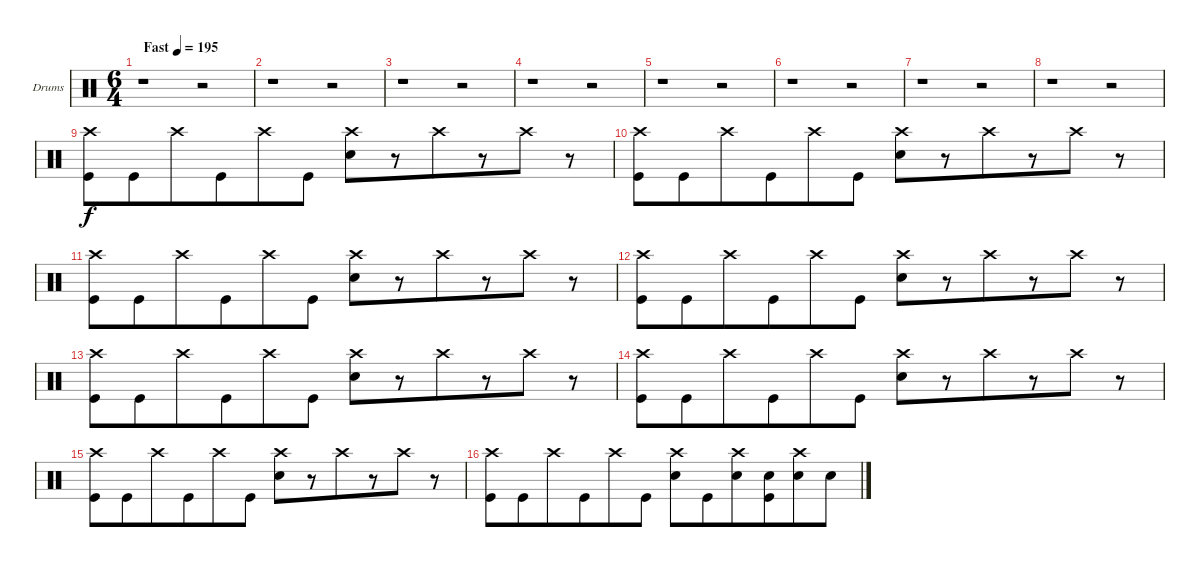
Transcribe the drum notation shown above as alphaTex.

\bracketExtendMode groupsimilarinstruments
\firstSystemTrackNameOrientation horizontal
\otherSystemsTrackNameOrientation horizontal
\track ("Drumkit" "Drums") {instrument percussion}
\staff {score}
\articulation defaults
\ts (6 4)
\beaming (8 6 6)
\tempo (195 "Fast")
\clef neutral
\ks c
r.1{dy f} r.2 |
r.1 r.2 |
r.1 r.2 |
r.1 r.2 |
r.1 r.2 |
r.1 r.2 |
r.1 r.2 |
r.1 r.2 |
("Crash high (hit)" "Kick (hit)").8 "Kick (hit)".8 "Crash high (hit)".8 "Kick (hit)".8 "Crash high (hit)".8 "Kick (hit)".8 ("Crash high (hit)" "Snare (hit) 2").8 r.8 "Crash high (hit)".8 r.8 "Crash high (hit)".8 r.8 |
("Crash high (hit)" "Kick (hit)").8 "Kick (hit)".8 "Crash high (hit)".8 "Kick (hit)".8 "Crash high (hit)".8 "Kick (hit)".8 ("Crash high (hit)" "Snare (hit) 2").8 r.8 "Crash high (hit)".8 r.8 "Crash high (hit)".8 r.8 |
("Crash high (hit)" "Kick (hit)").8 "Kick (hit)".8 "Crash high (hit)".8 "Kick (hit)".8 "Crash high (hit)".8 "Kick (hit)".8 ("Crash high (hit)" "Snare (hit) 2").8 r.8 "Crash high (hit)".8 r.8 "Crash high (hit)".8 r.8 |
("Crash high (hit)" "Kick (hit)").8 "Kick (hit)".8 "Crash high (hit)".8 "Kick (hit)".8 "Crash high (hit)".8 "Kick (hit)".8 ("Crash high (hit)" "Snare (hit) 2").8 r.8 "Crash high (hit)".8 r.8 "Crash high (hit)".8 r.8 |
("Crash high (hit)" "Kick (hit)").8 "Kick (hit)".8 "Crash high (hit)".8 "Kick (hit)".8 "Crash high (hit)".8 "Kick (hit)".8 ("Crash high (hit)" "Snare (hit) 2").8 r.8 "Crash high (hit)".8 r.8 "Crash high (hit)".8 r.8 |
("Crash high (hit)" "Kick (hit)").8 "Kick (hit)".8 "Crash high (hit)".8 "Kick (hit)".8 "Crash high (hit)".8 "Kick (hit)".8 ("Crash high (hit)" "Snare (hit) 2").8 r.8 "Crash high (hit)".8 r.8 "Crash high (hit)".8 r.8 |
("Crash high (hit)" "Kick (hit)").8 "Kick (hit)".8 "Crash high (hit)".8 "Kick (hit)".8 "Crash high (hit)".8 "Kick (hit)".8 ("Crash high (hit)" "Snare (hit) 2").8 r.8 "Crash high (hit)".8 r.8 "Crash high (hit)".8 r.8 |
("Crash high (hit)" "Kick (hit)").8 "Kick (hit)".8 "Crash high (hit)".8 "Kick (hit)".8 "Crash high (hit)".8 "Kick (hit)".8 ("Crash high (hit)" "Snare (hit) 2").8 "Kick (hit)".8 ("Crash high (hit)" "Snare (hit) 2").8 ("Snare (hit) 2" "Kick (hit)").8 ("Crash high (hit)" "Snare (hit) 2").8 "Snare (hit) 2".8
